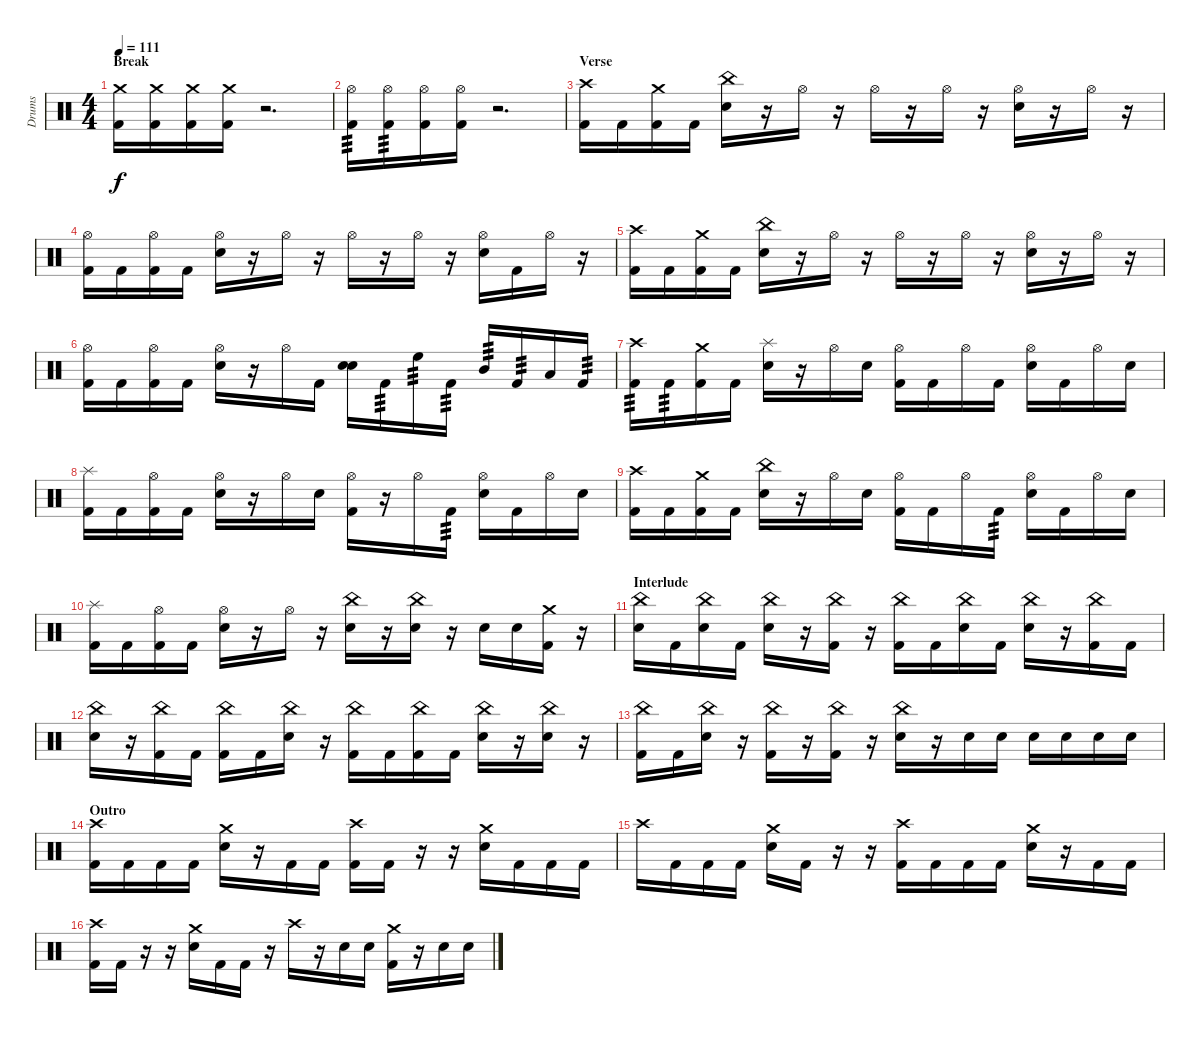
\track ("Drums" "Drums") {instrument percussion}
\staff {score}
\articulation defaults
\ts (4 4)
\section ("" "Break")
\tempo 111
\clef neutral
\ks c
("Crash medium (hit)" "Kick (hit) 2").16{dy f} ("Crash medium (hit)" "Kick (hit) 2").16 ("Crash medium (hit)" "Kick (hit) 2").16 ("Crash medium (hit)" "Kick (hit) 2").16 r.2{d} |
("Hi-Hat (open)" "Kick (hit) 2").16{tp 3} ("Hi-Hat (open)" "Kick (hit) 2").16{tp 3} ("Hi-Hat (open)" "Kick (hit) 2").16 ("Hi-Hat (open)" "Kick (hit) 2").16 r.2{d} |
\section ("" "Verse")
("Crash high (hit)" "Kick (hit) 2").16 "Kick (hit) 2".16 ("Crash medium (hit)" "Kick (hit) 2").16 "Kick (hit) 2".16 ("China (hit)" "Electric Snare (hit)").16 r.16 "Hi-Hat (open)".16 r.16 "Hi-Hat (open)".16 r.16 "Hi-Hat (open)".16 r.16 ("Hi-Hat (open)" "Electric Snare (hit)").16 r.16 "Hi-Hat (open)".16 r.16 |
("Hi-Hat (open)" "Kick (hit) 2").16 "Kick (hit) 2".16 ("Hi-Hat (open)" "Kick (hit) 2").16 "Kick (hit) 2".16 ("Hi-Hat (open)" "Electric Snare (hit)").16 r.16 "Hi-Hat (open)".16 r.16 "Hi-Hat (open)".16 r.16 "Hi-Hat (open)".16 r.16 ("Hi-Hat (open)" "Electric Snare (hit)").16 "Kick (hit) 2".16 "Hi-Hat (open)".16 r.16 |
("Crash high (hit)" "Kick (hit) 2").16 "Kick (hit) 2".16 ("Crash medium (hit)" "Kick (hit) 2").16 "Kick (hit) 2".16 ("China (hit)" "Electric Snare (hit)").16 r.16 "Hi-Hat (open)".16 r.16 "Hi-Hat (open)".16 r.16 "Hi-Hat (open)".16 r.16 ("Hi-Hat (open)" "Electric Snare (hit)").16 r.16 "Hi-Hat (open)".16 r.16 |
("Hi-Hat (open)" "Kick (hit) 2").16 "Kick (hit) 2".16 ("Hi-Hat (open)" "Kick (hit) 2").16 "Kick (hit) 2".16 ("Hi-Hat (open)" "Electric Snare (hit)").16 r.16 "Hi-Hat (open)".16 "Kick (hit) 2".16 ("Electric Snare (hit)" "Electric Snare (hit)").16 "Kick (hit) 2".16{tp 3} "High Floor Tom (hit)".16{tp 3} "Kick (hit) 2".16{tp 3} "Mid Tom (hit)".16{tp 3} "Kick (hit) 2".16{tp 3} "Low Tom (hit)".16 "Kick (hit) 2".16{tp 3} |
("Crash high (hit)" "Kick (hit) 2").16{tp 3} "Kick (hit) 2".16{tp 3} ("Crash medium (hit)" "Kick (hit) 2").16 "Kick (hit) 2".16 ("Splash (hit)" "Electric Snare (hit)").16 r.16 "Hi-Hat (open)".16 "Electric Snare (hit)".16 ("Hi-Hat (open)" "Kick (hit) 2").16 "Kick (hit) 2".16 "Hi-Hat (open)".16 "Kick (hit) 2".16 ("Hi-Hat (open)" "Electric Snare (hit)").16 "Kick (hit) 2".16 "Hi-Hat (open)".16 "Electric Snare (hit)".16 |
("Splash (hit)" "Kick (hit) 2").16 "Kick (hit) 2".16 ("Hi-Hat (open)" "Kick (hit) 2").16 "Kick (hit) 2".16 ("Hi-Hat (open)" "Electric Snare (hit)").16 r.16 "Hi-Hat (open)".16 "Electric Snare (hit)".16 ("Hi-Hat (open)" "Kick (hit) 2").16 r.16 "Hi-Hat (open)".16 "Kick (hit) 2".16{tp 3} ("Hi-Hat (open)" "Electric Snare (hit)").16 "Kick (hit) 2".16 "Hi-Hat (open)".16 "Electric Snare (hit)".16 |
("Crash high (hit)" "Kick (hit) 2").16 "Kick (hit) 2".16 ("Crash medium (hit)" "Kick (hit) 2").16 "Kick (hit) 2".16 ("China (hit)" "Electric Snare (hit)").16 r.16 "Hi-Hat (open)".16 "Electric Snare (hit)".16 ("Hi-Hat (open)" "Kick (hit) 2").16 "Kick (hit) 2".16 "Hi-Hat (open)".16 "Kick (hit) 2".16{tp 3} ("Hi-Hat (open)" "Electric Snare (hit)").16 "Kick (hit) 2".16 "Hi-Hat (open)".16 "Electric Snare (hit)".16 |
("Splash (hit)" "Kick (hit) 2").16 "Kick (hit) 2".16 ("Hi-Hat (open)" "Kick (hit) 2").16 "Kick (hit) 2".16 ("Hi-Hat (open)" "Electric Snare (hit)").16 r.16 "Hi-Hat (open)".16 r.16 ("China (hit)" "Electric Snare (hit)").16 r.16 ("China (hit)" "Electric Snare (hit)").16 r.16 "Electric Snare (hit)".16 "Electric Snare (hit)".16 ("Crash medium (hit)" "Kick (hit) 2").16 r.16 |
\section ("" "Interlude")
("China (hit)" "Electric Snare (hit)").16 "Kick (hit) 2".16 ("China (hit)" "Electric Snare (hit)").16 "Kick (hit) 2".16 ("China (hit)" "Electric Snare (hit)").16 r.16 ("China (hit)" "Kick (hit) 2").16 r.16 ("China (hit)" "Kick (hit) 2").16 "Kick (hit) 2".16 ("China (hit)" "Electric Snare (hit)").16 "Kick (hit) 2".16 ("China (hit)" "Electric Snare (hit)").16 r.16 ("China (hit)" "Kick (hit) 2").16 "Kick (hit) 2".16 |
("China (hit)" "Electric Snare (hit)").16 r.16 ("China (hit)" "Kick (hit) 2").16 "Kick (hit) 2".16 ("China (hit)" "Kick (hit) 2").16 "Kick (hit) 2".16 ("China (hit)" "Electric Snare (hit)").16 r.16 ("China (hit)" "Kick (hit) 2").16 "Kick (hit) 2".16 ("China (hit)" "Kick (hit) 2").16 "Kick (hit) 2".16 ("China (hit)" "Electric Snare (hit)").16 r.16 ("China (hit)" "Electric Snare (hit)").16 r.16 |
("China (hit)" "Kick (hit) 2").16 "Kick (hit) 2".16 ("China (hit)" "Electric Snare (hit)").16 r.16 ("China (hit)" "Kick (hit) 2").16 r.16 ("China (hit)" "Kick (hit) 2").16 r.16 ("China (hit)" "Electric Snare (hit)").16 r.16 "Electric Snare (hit)".16 "Electric Snare (hit)".16 "Electric Snare (hit)".16 "Electric Snare (hit)".16 "Electric Snare (hit)".16 "Electric Snare (hit)".16 |
\section ("" "Outro")
("Crash high (hit)" "Kick (hit) 2").16 "Kick (hit) 2".16 "Kick (hit) 2".16 "Kick (hit) 2".16 ("Crash medium (hit)" "Electric Snare (hit)").16 r.16 "Kick (hit) 2".16 "Kick (hit) 2".16 ("Crash high (hit)" "Kick (hit) 2").16 "Kick (hit) 2".16 r.16 r.16 ("Crash medium (hit)" "Electric Snare (hit)").16 "Kick (hit) 2".16 "Kick (hit) 2".16 "Kick (hit) 2".16 |
"Crash high (hit)".16 "Kick (hit) 2".16 "Kick (hit) 2".16 "Kick (hit) 2".16 ("Crash medium (hit)" "Electric Snare (hit)").16 "Kick (hit) 2".16 r.16 r.16 ("Crash high (hit)" "Kick (hit) 2").16 "Kick (hit) 2".16 "Kick (hit) 2".16 "Kick (hit) 2".16 ("Crash medium (hit)" "Electric Snare (hit)").16 r.16 "Kick (hit) 2".16 "Kick (hit) 2".16 |
("Crash high (hit)" "Kick (hit) 2").16 "Kick (hit) 2".16 r.16 r.16 ("Crash medium (hit)" "Electric Snare (hit)").16 "Kick (hit) 2".16 "Kick (hit) 2".16 r.16 "Crash high (hit)".16 r.16 "Electric Snare (hit)".16 "Electric Snare (hit)".16 ("Crash medium (hit)" "Kick (hit) 2").16 r.16 "Electric Snare (hit)".16 "Electric Snare (hit)".16
